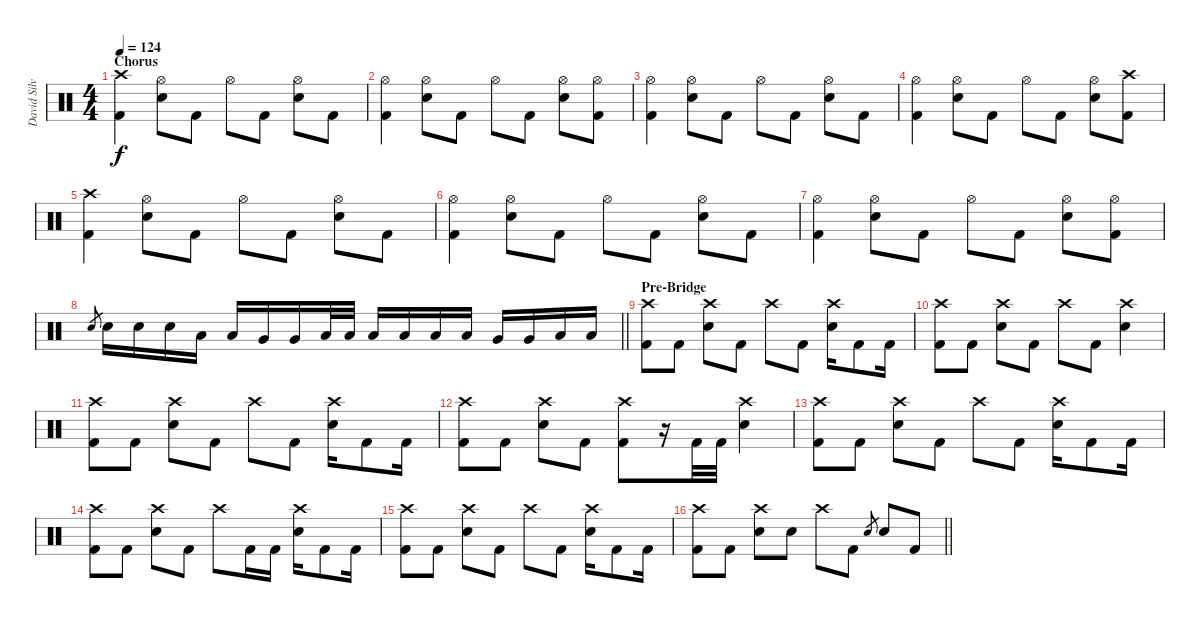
\track ("David Silvera" "David Silv") {instrument percussion}
\staff {score}
\articulation defaults
\ts (4 4)
\section ("" "Chorus")
\tempo 124
\clef neutral
\ks c
("Crash high (hit)" "Kick (hit) 2").4{dy f} ("Hi-Hat (open)" "Electric Snare (hit)").8 "Kick (hit) 2".8 "Hi-Hat (open)".8 "Kick (hit) 2".8 ("Hi-Hat (open)" "Electric Snare (hit)").8 "Kick (hit) 2".8 |
("Hi-Hat (open)" "Kick (hit) 2").4 ("Hi-Hat (open)" "Electric Snare (hit)").8 "Kick (hit) 2".8 "Hi-Hat (open)".8 "Kick (hit) 2".8 ("Hi-Hat (open)" "Electric Snare (hit)").8 ("Hi-Hat (open)" "Kick (hit) 2").8 |
("Hi-Hat (open)" "Kick (hit) 2").4 ("Hi-Hat (open)" "Electric Snare (hit)").8 "Kick (hit) 2".8 "Hi-Hat (open)".8 "Kick (hit) 2".8 ("Hi-Hat (open)" "Electric Snare (hit)").8 "Kick (hit) 2".8 |
("Hi-Hat (open)" "Kick (hit) 2").4 ("Hi-Hat (open)" "Electric Snare (hit)").8 "Kick (hit) 2".8 "Hi-Hat (open)".8 "Kick (hit) 2".8 ("Hi-Hat (open)" "Electric Snare (hit)").8 ("Crash high (hit)" "Kick (hit) 2").8 |
("Crash high (hit)" "Kick (hit) 2").4 ("Hi-Hat (open)" "Electric Snare (hit)").8 "Kick (hit) 2".8 "Hi-Hat (open)".8 "Kick (hit) 2".8 ("Hi-Hat (open)" "Electric Snare (hit)").8 "Kick (hit) 2".8 |
("Hi-Hat (open)" "Kick (hit) 2").4 ("Hi-Hat (open)" "Electric Snare (hit)").8 "Kick (hit) 2".8 "Hi-Hat (open)".8 "Kick (hit) 2".8 ("Hi-Hat (open)" "Electric Snare (hit)").8 "Kick (hit) 2".8 |
("Hi-Hat (open)" "Kick (hit) 2").4 ("Hi-Hat (open)" "Electric Snare (hit)").8 "Kick (hit) 2".8 "Hi-Hat (open)".8 "Kick (hit) 2".8 ("Hi-Hat (open)" "Electric Snare (hit)").8 ("Hi-Hat (open)" "Kick (hit) 2").8 |
\barLineRight lightlight "Electric Snare (hit)".8{gr} "Electric Snare (hit)".16 "Electric Snare (hit)".16 "Electric Snare (hit)".16 "Low Tom (hit)".16 "Low Tom (hit)".16 "Very Low Tom (hit)".16 "Very Low Tom (hit)".16 "Low Floor Tom (hit)".32 "Low Floor Tom (hit)".32 "Low Floor Tom (hit)".16 "Low Floor Tom (hit)".16 "Low Tom (hit)".16 "Low Tom (hit)".16 "Very Low Tom (hit)".16 "Very Low Tom (hit)".16 "Low Floor Tom (hit)".16 "Low Floor Tom (hit)".16
|
\section ("" "Pre-Bridge")
("Crash high (hit)" "Kick (hit) 2").8 "Kick (hit) 2".8 ("Crash high (hit)" "Electric Snare (hit)").8 "Kick (hit) 2".8 "Crash high (hit)".8 "Kick (hit) 2".8 ("Crash high (hit)" "Electric Snare (hit)").16 "Kick (hit) 2".8 "Kick (hit) 2".16 |
("Crash high (hit)" "Kick (hit) 2").8 "Kick (hit) 2".8 ("Crash high (hit)" "Electric Snare (hit)").8 "Kick (hit) 2".8 "Crash high (hit)".8 "Kick (hit) 2".8 ("Crash high (hit)" "Electric Snare (hit)").4 |
("Crash high (hit)" "Kick (hit) 2").8 "Kick (hit) 2".8 ("Crash high (hit)" "Electric Snare (hit)").8 "Kick (hit) 2".8 "Crash high (hit)".8 "Kick (hit) 2".8 ("Crash high (hit)" "Electric Snare (hit)").16 "Kick (hit) 2".8 "Kick (hit) 2".16 |
("Crash high (hit)" "Kick (hit) 2").8 "Kick (hit) 2".8 ("Crash high (hit)" "Electric Snare (hit)").8 "Kick (hit) 2".8 ("Crash high (hit)" "Kick (hit) 2").8 r.16 "Kick (hit) 2".32 "Kick (hit) 2".32 ("Crash high (hit)" "Electric Snare (hit)").4 |
("Crash high (hit)" "Kick (hit) 2").8 "Kick (hit) 2".8 ("Crash high (hit)" "Electric Snare (hit)").8 "Kick (hit) 2".8 "Crash high (hit)".8 "Kick (hit) 2".8 ("Crash high (hit)" "Electric Snare (hit)").16 "Kick (hit) 2".8 "Kick (hit) 2".16 |
("Crash high (hit)" "Kick (hit) 2").8 "Kick (hit) 2".8 ("Crash high (hit)" "Electric Snare (hit)").8 "Kick (hit) 2".8 "Crash high (hit)".8 "Kick (hit) 2".16 "Kick (hit) 2".16 ("Crash high (hit)" "Electric Snare (hit)").16 "Kick (hit) 2".8 "Kick (hit) 2".16 |
("Crash high (hit)" "Kick (hit) 2").8 "Kick (hit) 2".8 ("Crash high (hit)" "Electric Snare (hit)").8 "Kick (hit) 2".8 "Crash high (hit)".8 "Kick (hit) 2".8 ("Crash high (hit)" "Electric Snare (hit)").16 "Kick (hit) 2".8 "Kick (hit) 2".16 |
\barLineRight lightlight
("Crash high (hit)" "Kick (hit) 2").8 "Kick (hit) 2".8 ("Crash high (hit)" "Electric Snare (hit)").8 "Electric Snare (hit)".8 "Crash high (hit)".8 "Kick (hit) 2".8 "Electric Snare (hit)".8{gr} "Electric Snare (hit)".8 "Kick (hit) 2".8
